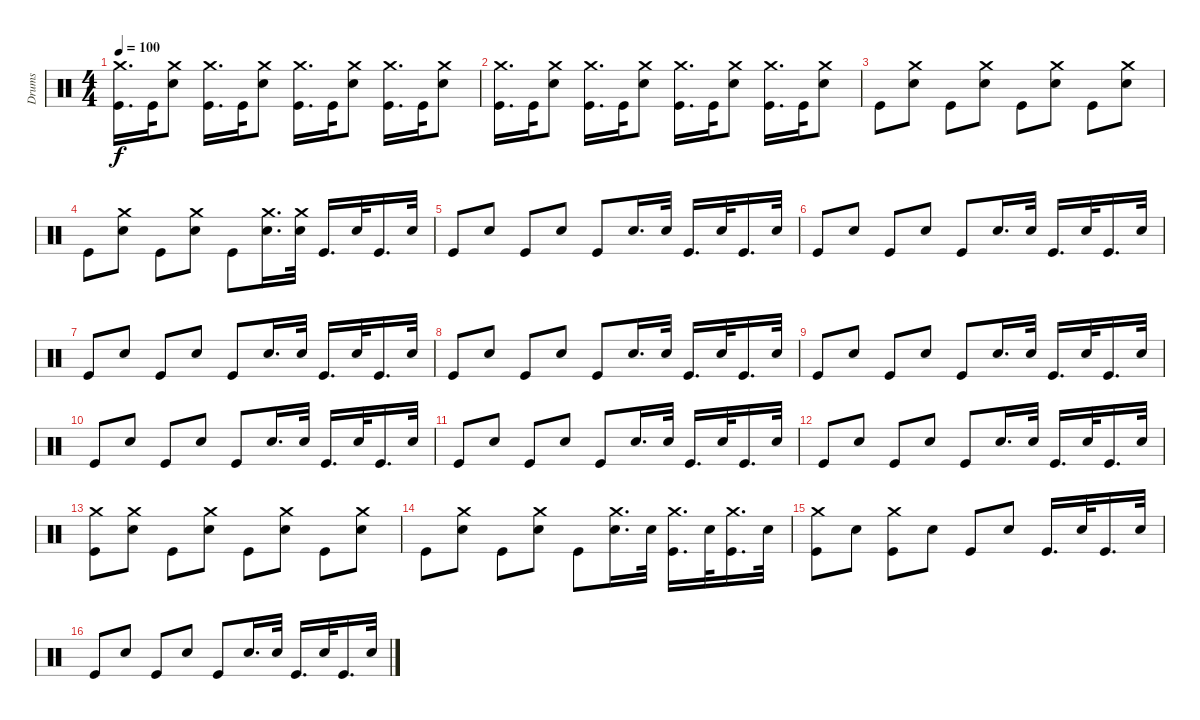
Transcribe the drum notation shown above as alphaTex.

\track ("Drums" "Drums") {instrument percussion}
\staff {score}
\articulation defaults
\ts (4 4)
\tempo 100
\clef neutral
\ks c
("Crash medium (hit)" "Kick (hit)").16{d dy f} "Kick (hit)".32 ("Crash medium (hit)" "Electric Snare (hit)").8 ("Crash medium (hit)" "Kick (hit)").16{d} "Kick (hit)".32 ("Crash medium (hit)" "Electric Snare (hit)").8 ("Crash medium (hit)" "Kick (hit)").16{d} "Kick (hit)".32 ("Crash medium (hit)" "Electric Snare (hit)").8 ("Crash medium (hit)" "Kick (hit)").16{d} "Kick (hit)".32 ("Crash medium (hit)" "Electric Snare (hit)").8 |
("Crash medium (hit)" "Kick (hit)").16{d} "Kick (hit)".32 ("Crash medium (hit)" "Electric Snare (hit)").8 ("Crash medium (hit)" "Kick (hit)").16{d} "Kick (hit)".32 ("Crash medium (hit)" "Electric Snare (hit)").8 ("Crash medium (hit)" "Kick (hit)").16{d} "Kick (hit)".32 ("Crash medium (hit)" "Electric Snare (hit)").8 ("Crash medium (hit)" "Kick (hit)").16{d} "Kick (hit)".32 ("Crash medium (hit)" "Electric Snare (hit)").8 |
"Kick (hit)".8 ("Crash medium (hit)" "Electric Snare (hit)").8 "Kick (hit)".8 ("Crash medium (hit)" "Electric Snare (hit)").8 "Kick (hit)".8 ("Crash medium (hit)" "Electric Snare (hit)").8 "Kick (hit)".8 ("Crash medium (hit)" "Electric Snare (hit)").8 |
"Kick (hit)".8 ("Crash medium (hit)" "Electric Snare (hit)").8 "Kick (hit)".8 ("Crash medium (hit)" "Electric Snare (hit)").8 "Kick (hit)".8 ("Crash medium (hit)" "Electric Snare (hit)").16{d} ("Crash medium (hit)" "Electric Snare (hit)").32 "Kick (hit)".16{d} "Electric Snare (hit)".32 "Kick (hit)".16{d} "Electric Snare (hit)".32 |
"Kick (hit)".8 "Electric Snare (hit)".8 "Kick (hit)".8 "Electric Snare (hit)".8 "Kick (hit)".8 "Electric Snare (hit)".16{d} "Electric Snare (hit)".32 "Kick (hit)".16{d} "Electric Snare (hit)".32 "Kick (hit)".16{d} "Electric Snare (hit)".32 |
"Kick (hit)".8 "Electric Snare (hit)".8 "Kick (hit)".8 "Electric Snare (hit)".8 "Kick (hit)".8 "Electric Snare (hit)".16{d} "Electric Snare (hit)".32 "Kick (hit)".16{d} "Electric Snare (hit)".32 "Kick (hit)".16{d} "Electric Snare (hit)".32 |
"Kick (hit)".8 "Electric Snare (hit)".8 "Kick (hit)".8 "Electric Snare (hit)".8 "Kick (hit)".8 "Electric Snare (hit)".16{d} "Electric Snare (hit)".32 "Kick (hit)".16{d} "Electric Snare (hit)".32 "Kick (hit)".16{d} "Electric Snare (hit)".32 |
"Kick (hit)".8 "Electric Snare (hit)".8 "Kick (hit)".8 "Electric Snare (hit)".8 "Kick (hit)".8 "Electric Snare (hit)".16{d} "Electric Snare (hit)".32 "Kick (hit)".16{d} "Electric Snare (hit)".32 "Kick (hit)".16{d} "Electric Snare (hit)".32 |
"Kick (hit)".8 "Electric Snare (hit)".8 "Kick (hit)".8 "Electric Snare (hit)".8 "Kick (hit)".8 "Electric Snare (hit)".16{d} "Electric Snare (hit)".32 "Kick (hit)".16{d} "Electric Snare (hit)".32 "Kick (hit)".16{d} "Electric Snare (hit)".32 |
"Kick (hit)".8 "Electric Snare (hit)".8 "Kick (hit)".8 "Electric Snare (hit)".8 "Kick (hit)".8 "Electric Snare (hit)".16{d} "Electric Snare (hit)".32 "Kick (hit)".16{d} "Electric Snare (hit)".32 "Kick (hit)".16{d} "Electric Snare (hit)".32 |
"Kick (hit)".8 "Electric Snare (hit)".8 "Kick (hit)".8 "Electric Snare (hit)".8 "Kick (hit)".8 "Electric Snare (hit)".16{d} "Electric Snare (hit)".32 "Kick (hit)".16{d} "Electric Snare (hit)".32 "Kick (hit)".16{d} "Electric Snare (hit)".32 |
"Kick (hit)".8 "Electric Snare (hit)".8 "Kick (hit)".8 "Electric Snare (hit)".8 "Kick (hit)".8 "Electric Snare (hit)".16{d} "Electric Snare (hit)".32 "Kick (hit)".16{d} "Electric Snare (hit)".32 "Kick (hit)".16{d} "Electric Snare (hit)".32 |
("Crash medium (hit)" "Kick (hit)").8 ("Crash medium (hit)" "Electric Snare (hit)").8 "Kick (hit)".8 ("Crash medium (hit)" "Electric Snare (hit)").8 "Kick (hit)".8 ("Crash medium (hit)" "Electric Snare (hit)").8 "Kick (hit)".8 ("Crash medium (hit)" "Electric Snare (hit)").8 |
"Kick (hit)".8 ("Crash medium (hit)" "Electric Snare (hit)").8 "Kick (hit)".8 ("Crash medium (hit)" "Electric Snare (hit)").8 "Kick (hit)".8 ("Crash medium (hit)" "Electric Snare (hit)").16{d} "Electric Snare (hit)".32 ("Crash medium (hit)" "Kick (hit)").16{d} "Electric Snare (hit)".32 ("Crash medium (hit)" "Kick (hit)").16{d} "Electric Snare (hit)".32 |
("Crash medium (hit)" "Kick (hit)").8 "Electric Snare (hit)".8 ("Crash medium (hit)" "Kick (hit)").8 "Electric Snare (hit)".8 "Kick (hit)".8 "Electric Snare (hit)".8 "Kick (hit)".16{d} "Electric Snare (hit)".32 "Kick (hit)".16{d} "Electric Snare (hit)".32 |
"Kick (hit)".8 "Electric Snare (hit)".8 "Kick (hit)".8 "Electric Snare (hit)".8 "Kick (hit)".8 "Electric Snare (hit)".16{d} "Electric Snare (hit)".32 "Kick (hit)".16{d} "Electric Snare (hit)".32 "Kick (hit)".16{d} "Electric Snare (hit)".32
